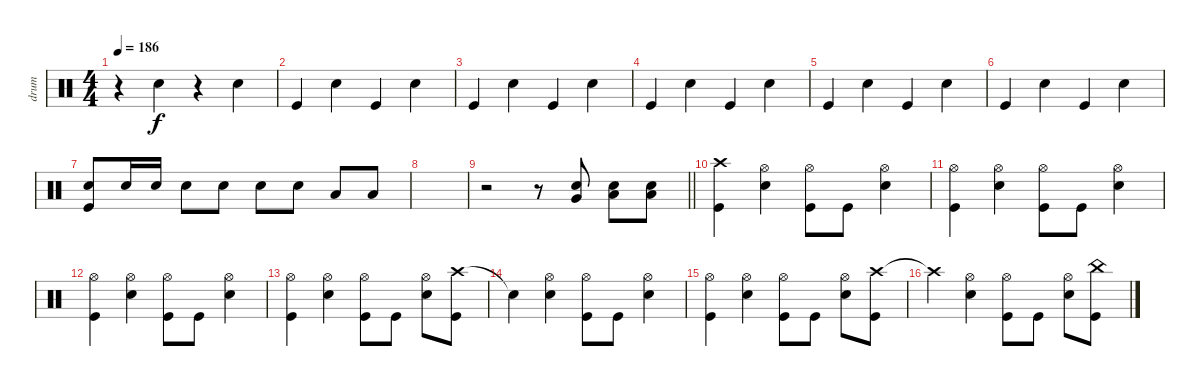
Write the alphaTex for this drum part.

\track ("drum" "drum") {instrument percussion}
\staff {score}
\articulation defaults
\ts (4 4)
\tempo 186
\clef neutral
\ks c
r.4{dy f} "Snare (hit) 2".4 r.4 "Snare (hit) 2".4 |
"Kick (hit)".4 "Snare (hit) 2".4 "Kick (hit)".4 "Snare (hit) 2".4 |
"Kick (hit)".4 "Snare (hit) 2".4 "Kick (hit)".4 "Snare (hit) 2".4 |
"Kick (hit)".4 "Snare (hit) 2".4 "Kick (hit)".4 "Snare (hit) 2".4 |
"Kick (hit)".4 "Snare (hit) 2".4 "Kick (hit)".4 "Snare (hit) 2".4 |
"Kick (hit)".4 "Snare (hit) 2".4 "Kick (hit)".4 "Snare (hit) 2".4 |
("Snare (hit) 2" "Kick (hit)").8 "Snare (hit) 2".16 "Snare (hit) 2".16 "Snare (hit) 2".8 "Snare (hit) 2".8 "Snare (hit) 2".8 "Snare (hit) 2".8 "Low Tom (hit)".8 "Low Tom (hit)".8 |
|
\barLineRight lightlight
r.2 r.8 ("Snare (hit) 2" "Very Low Tom (hit)").8 ("Snare (hit) 2" "Low Floor Tom (hit)").8 ("Snare (hit) 2" "Low Floor Tom (hit)").8 |
("Crash high (hit)" "Kick (hit)").4 ("Hi-Hat (open)" "Snare (hit) 2").4 ("Hi-Hat (open)" "Kick (hit)").8 "Kick (hit)".8 ("Hi-Hat (open)" "Snare (hit) 2").4 |
("Hi-Hat (open)" "Kick (hit)").4 ("Hi-Hat (open)" "Snare (hit) 2").4 ("Hi-Hat (open)" "Kick (hit)").8 "Kick (hit)".8 ("Hi-Hat (open)" "Snare (hit) 2").4 |
("Hi-Hat (open)" "Kick (hit)").4 ("Hi-Hat (open)" "Snare (hit) 2").4 ("Hi-Hat (open)" "Kick (hit)").8 "Kick (hit)".8 ("Hi-Hat (open)" "Snare (hit) 2").4 |
("Hi-Hat (open)" "Kick (hit)").4 ("Hi-Hat (open)" "Snare (hit) 2").4 ("Hi-Hat (open)" "Kick (hit)").8 "Kick (hit)".8 ("Hi-Hat (open)" "Snare (hit) 2").8 ("Crash high (hit)" "Kick (hit)").8 |
"Snare (hit)"{t}.4 ("Hi-Hat (open)" "Snare (hit) 2").4 ("Hi-Hat (open)" "Kick (hit)").8 "Kick (hit)".8 ("Hi-Hat (open)" "Snare (hit) 2").4 |
("Hi-Hat (open)" "Kick (hit)").4 ("Hi-Hat (open)" "Snare (hit) 2").4 ("Hi-Hat (open)" "Kick (hit)").8 "Kick (hit)".8 ("Hi-Hat (open)" "Snare (hit) 2").8 ("Crash high (hit)" "Kick (hit)").8 |
"Crash high (hit)"{t}.4 ("Hi-Hat (open)" "Snare (hit) 2").4 ("Hi-Hat (open)" "Kick (hit)").8 "Kick (hit)".8 ("Hi-Hat (open)" "Snare (hit) 2").8 ("China (hit)" "Kick (hit)").8
